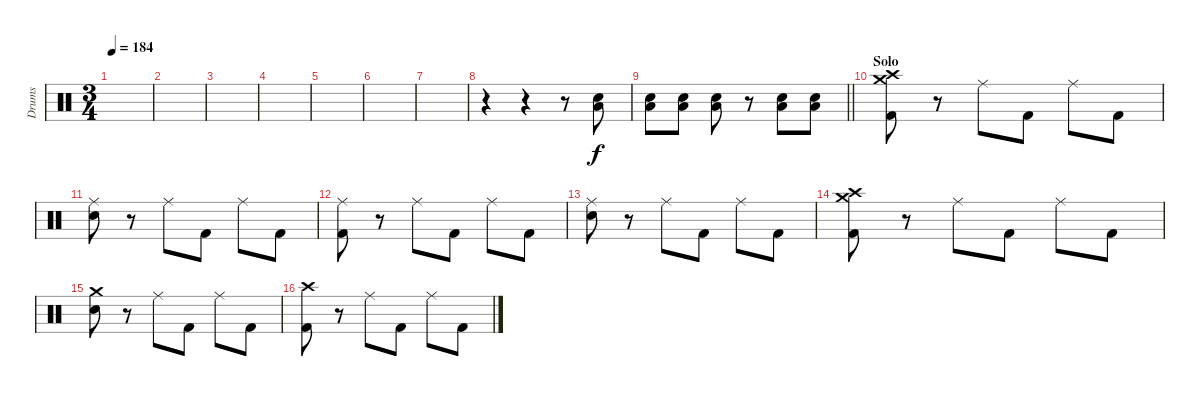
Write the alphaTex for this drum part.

\track ("Drums" "Drums") {instrument percussion}
\staff {score}
\articulation defaults
\ts (3 4)
\tempo 184
\clef neutral
\ks c
|
|
|
|
|
|
|
r.4 r.4 r.8 ("Low Floor Tom (hit)" "Snare (hit) 2").8 |
\barLineRight lightlight
("Low Floor Tom (hit)" "Snare (hit) 2").8 ("Low Floor Tom (hit)" "Snare (hit) 2").8 ("Low Floor Tom (hit)" "Snare (hit) 2").8 r.8 ("Low Floor Tom (hit)" "Snare (hit) 2").8 ("Low Floor Tom (hit)" "Snare (hit) 2").8 |
\section ("" "Solo")
("Crash medium (hit)" "Crash high (hit)" "Kick (hit) 2").8 r.8 "Ride (middle)".8 "Kick (hit) 2".8 "Ride (middle)".8 "Kick (hit) 2".8 |
("Ride (middle)" "Snare (hit) 2").8 r.8 "Ride (middle)".8 "Kick (hit) 2".8 "Ride (middle)".8 "Kick (hit) 2".8 |
("Ride (middle)" "Kick (hit) 2").8 r.8 "Ride (middle)".8 "Kick (hit) 2".8 "Ride (middle)".8 "Kick (hit) 2".8 |
("Ride (middle)" "Snare (hit) 2").8 r.8 "Ride (middle)".8 "Kick (hit) 2".8 "Ride (middle)".8 "Kick (hit) 2".8 |
("Crash high (hit)" "Crash medium (hit)" "Kick (hit) 2").8 r.8 "Ride (middle)".8 "Kick (hit) 2".8 "Ride (middle)".8 "Kick (hit) 2".8 |
("Crash medium (hit)" "Snare (hit) 2").8 r.8 "Ride (middle)".8 "Kick (hit) 2".8 "Ride (middle)".8 "Kick (hit) 2".8 |
("Crash high (hit)" "Kick (hit) 2").8 r.8 "Ride (middle)".8 "Kick (hit) 2".8 "Ride (middle)".8 "Kick (hit) 2".8
